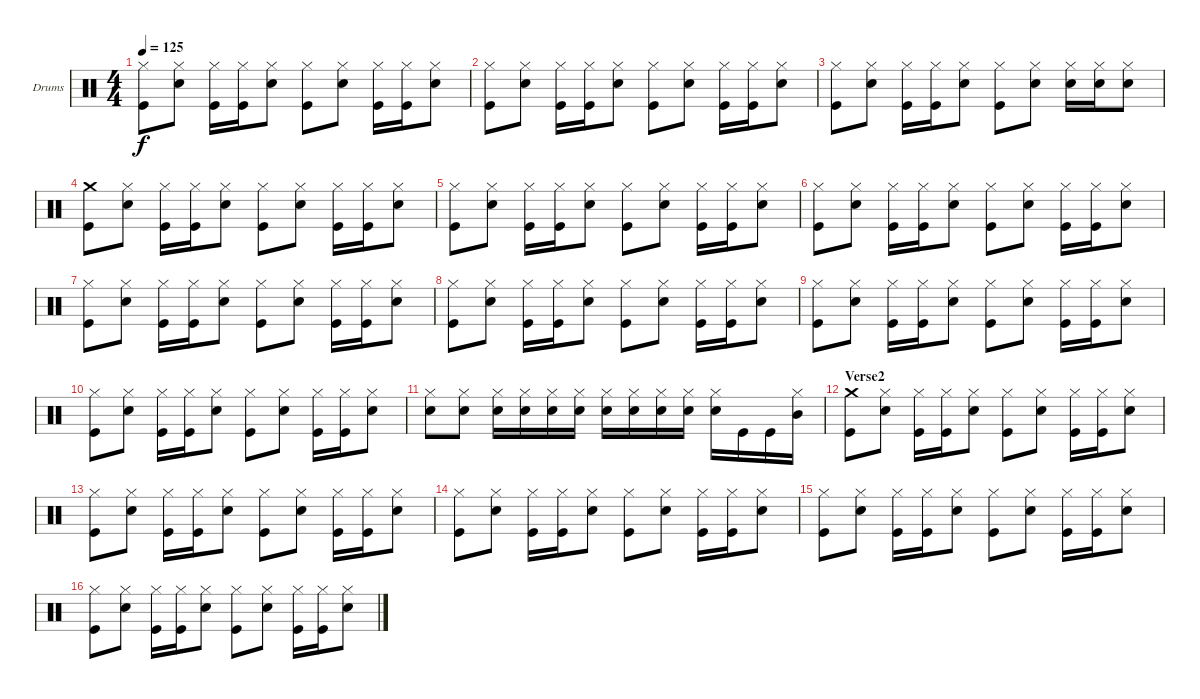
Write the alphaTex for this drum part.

\defaultSystemsLayout 4
\bracketExtendMode groupsimilarinstruments
\firstSystemTrackNameOrientation horizontal
\otherSystemsTrackNameOrientation horizontal
\track ("Drum" "Drums") {instrument percussion}
\staff {score}
\articulation defaults
\ts (4 4)
\tempo 125
\clef neutral
\ks c
("Hi-Hat (closed)" "Kick (hit)").8{dy f} ("Hi-Hat (closed)" "Snare (hit) 2").8 ("Hi-Hat (closed)" "Kick (hit)").16 ("Hi-Hat (closed)" "Kick (hit)").16 ("Hi-Hat (closed)" "Snare (hit) 2").8 ("Hi-Hat (closed)" "Kick (hit)").8 ("Hi-Hat (closed)" "Snare (hit) 2").8 ("Hi-Hat (closed)" "Kick (hit)").16 ("Hi-Hat (closed)" "Kick (hit)").16 ("Hi-Hat (closed)" "Snare (hit) 2").8 |
("Hi-Hat (closed)" "Kick (hit)").8 ("Hi-Hat (closed)" "Snare (hit) 2").8 ("Hi-Hat (closed)" "Kick (hit)").16 ("Hi-Hat (closed)" "Kick (hit)").16 ("Hi-Hat (closed)" "Snare (hit) 2").8 ("Hi-Hat (closed)" "Kick (hit)").8 ("Hi-Hat (closed)" "Snare (hit) 2").8 ("Hi-Hat (closed)" "Kick (hit)").16 ("Hi-Hat (closed)" "Kick (hit)").16 ("Hi-Hat (closed)" "Snare (hit) 2").8 |
("Hi-Hat (closed)" "Kick (hit)").8 ("Hi-Hat (closed)" "Snare (hit) 2").8 ("Hi-Hat (closed)" "Kick (hit)").16 ("Hi-Hat (closed)" "Kick (hit)").16 ("Hi-Hat (closed)" "Snare (hit) 2").8 ("Hi-Hat (closed)" "Kick (hit)").8 ("Hi-Hat (closed)" "Snare (hit) 2").8 ("Hi-Hat (closed)" "Snare (hit) 2").16 ("Hi-Hat (closed)" "Snare (hit) 2").16 ("Hi-Hat (closed)" "Snare (hit) 2").8 |
("Crash medium (hit)" "Kick (hit)").8 ("Hi-Hat (closed)" "Snare (hit) 2").8 ("Hi-Hat (closed)" "Kick (hit)").16 ("Hi-Hat (closed)" "Kick (hit)").16 ("Hi-Hat (closed)" "Snare (hit) 2").8 ("Hi-Hat (closed)" "Kick (hit)").8 ("Hi-Hat (closed)" "Snare (hit) 2").8 ("Hi-Hat (closed)" "Kick (hit)").16 ("Hi-Hat (closed)" "Kick (hit)").16 ("Hi-Hat (closed)" "Snare (hit) 2").8 |
("Hi-Hat (closed)" "Kick (hit)").8 ("Hi-Hat (closed)" "Snare (hit) 2").8 ("Hi-Hat (closed)" "Kick (hit)").16 ("Hi-Hat (closed)" "Kick (hit)").16 ("Hi-Hat (closed)" "Snare (hit) 2").8 ("Hi-Hat (closed)" "Kick (hit)").8 ("Hi-Hat (closed)" "Snare (hit) 2").8 ("Hi-Hat (closed)" "Kick (hit)").16 ("Hi-Hat (closed)" "Kick (hit)").16 ("Hi-Hat (closed)" "Snare (hit) 2").8 |
("Hi-Hat (closed)" "Kick (hit)").8 ("Hi-Hat (closed)" "Snare (hit) 2").8 ("Hi-Hat (closed)" "Kick (hit)").16 ("Hi-Hat (closed)" "Kick (hit)").16 ("Hi-Hat (closed)" "Snare (hit) 2").8 ("Hi-Hat (closed)" "Kick (hit)").8 ("Hi-Hat (closed)" "Snare (hit) 2").8 ("Hi-Hat (closed)" "Kick (hit)").16 ("Hi-Hat (closed)" "Kick (hit)").16 ("Hi-Hat (closed)" "Snare (hit) 2").8 |
("Hi-Hat (closed)" "Kick (hit)").8 ("Hi-Hat (closed)" "Snare (hit) 2").8 ("Hi-Hat (closed)" "Kick (hit)").16 ("Hi-Hat (closed)" "Kick (hit)").16 ("Hi-Hat (closed)" "Snare (hit) 2").8 ("Hi-Hat (closed)" "Kick (hit)").8 ("Hi-Hat (closed)" "Snare (hit) 2").8 ("Hi-Hat (closed)" "Kick (hit)").16 ("Hi-Hat (closed)" "Kick (hit)").16 ("Hi-Hat (closed)" "Snare (hit) 2").8 |
("Hi-Hat (closed)" "Kick (hit)").8 ("Hi-Hat (closed)" "Snare (hit) 2").8 ("Hi-Hat (closed)" "Kick (hit)").16 ("Hi-Hat (closed)" "Kick (hit)").16 ("Hi-Hat (closed)" "Snare (hit) 2").8 ("Hi-Hat (closed)" "Kick (hit)").8 ("Hi-Hat (closed)" "Snare (hit) 2").8 ("Hi-Hat (closed)" "Kick (hit)").16 ("Hi-Hat (closed)" "Kick (hit)").16 ("Hi-Hat (closed)" "Snare (hit) 2").8 |
("Hi-Hat (closed)" "Kick (hit)").8 ("Hi-Hat (closed)" "Snare (hit) 2").8 ("Hi-Hat (closed)" "Kick (hit)").16 ("Hi-Hat (closed)" "Kick (hit)").16 ("Hi-Hat (closed)" "Snare (hit) 2").8 ("Hi-Hat (closed)" "Kick (hit)").8 ("Hi-Hat (closed)" "Snare (hit) 2").8 ("Hi-Hat (closed)" "Kick (hit)").16 ("Hi-Hat (closed)" "Kick (hit)").16 ("Hi-Hat (closed)" "Snare (hit) 2").8 |
("Hi-Hat (closed)" "Kick (hit)").8 ("Hi-Hat (closed)" "Snare (hit) 2").8 ("Hi-Hat (closed)" "Kick (hit)").16 ("Hi-Hat (closed)" "Kick (hit)").16 ("Hi-Hat (closed)" "Snare (hit) 2").8 ("Hi-Hat (closed)" "Kick (hit)").8 ("Hi-Hat (closed)" "Snare (hit) 2").8 ("Hi-Hat (closed)" "Kick (hit)").16 ("Hi-Hat (closed)" "Kick (hit)").16 ("Hi-Hat (closed)" "Snare (hit) 2").8 |
("Hi-Hat (closed)" "Snare (hit) 2").8 ("Hi-Hat (closed)" "Snare (hit) 2").8 ("Hi-Hat (closed)" "Snare (hit) 2").16 ("Hi-Hat (closed)" "Snare (hit) 2").16 ("Hi-Hat (closed)" "Snare (hit) 2").16 ("Hi-Hat (closed)" "Snare (hit) 2").16 ("Hi-Hat (closed)" "Snare (hit) 2").16 ("Hi-Hat (closed)" "Snare (hit) 2").16 ("Hi-Hat (closed)" "Snare (hit) 2").16 ("Hi-Hat (closed)" "Snare (hit) 2").16 ("Hi-Hat (closed)" "Snare (hit) 2").16 "Kick (hit)".16 "Kick (hit)".16 ("Hi-Hat (closed)" "Mid Tom (hit)").16 |
\section ("" "Verse2")
("Crash medium (hit)" "Kick (hit)").8 ("Hi-Hat (closed)" "Snare (hit) 2").8 ("Hi-Hat (closed)" "Kick (hit)").16 ("Hi-Hat (closed)" "Kick (hit)").16 ("Hi-Hat (closed)" "Snare (hit) 2").8 ("Hi-Hat (closed)" "Kick (hit)").8 ("Hi-Hat (closed)" "Snare (hit) 2").8 ("Hi-Hat (closed)" "Kick (hit)").16 ("Hi-Hat (closed)" "Kick (hit)").16 ("Hi-Hat (closed)" "Snare (hit) 2").8 |
("Hi-Hat (closed)" "Kick (hit)").8 ("Hi-Hat (closed)" "Snare (hit) 2").8 ("Hi-Hat (closed)" "Kick (hit)").16 ("Hi-Hat (closed)" "Kick (hit)").16 ("Hi-Hat (closed)" "Snare (hit) 2").8 ("Hi-Hat (closed)" "Kick (hit)").8 ("Hi-Hat (closed)" "Snare (hit) 2").8 ("Hi-Hat (closed)" "Kick (hit)").16 ("Hi-Hat (closed)" "Kick (hit)").16 ("Hi-Hat (closed)" "Snare (hit) 2").8 |
("Hi-Hat (closed)" "Kick (hit)").8 ("Hi-Hat (closed)" "Snare (hit) 2").8 ("Hi-Hat (closed)" "Kick (hit)").16 ("Hi-Hat (closed)" "Kick (hit)").16 ("Hi-Hat (closed)" "Snare (hit) 2").8 ("Hi-Hat (closed)" "Kick (hit)").8 ("Hi-Hat (closed)" "Snare (hit) 2").8 ("Hi-Hat (closed)" "Kick (hit)").16 ("Hi-Hat (closed)" "Kick (hit)").16 ("Hi-Hat (closed)" "Snare (hit) 2").8 |
("Hi-Hat (closed)" "Kick (hit)").8 ("Hi-Hat (closed)" "Snare (hit) 2").8 ("Hi-Hat (closed)" "Kick (hit)").16 ("Hi-Hat (closed)" "Kick (hit)").16 ("Hi-Hat (closed)" "Snare (hit) 2").8 ("Hi-Hat (closed)" "Kick (hit)").8 ("Hi-Hat (closed)" "Snare (hit) 2").8 ("Hi-Hat (closed)" "Kick (hit)").16 ("Hi-Hat (closed)" "Kick (hit)").16 ("Hi-Hat (closed)" "Snare (hit) 2").8 |
("Hi-Hat (closed)" "Kick (hit)").8 ("Hi-Hat (closed)" "Snare (hit) 2").8 ("Hi-Hat (closed)" "Kick (hit)").16 ("Hi-Hat (closed)" "Kick (hit)").16 ("Hi-Hat (closed)" "Snare (hit) 2").8 ("Hi-Hat (closed)" "Kick (hit)").8 ("Hi-Hat (closed)" "Snare (hit) 2").8 ("Hi-Hat (closed)" "Kick (hit)").16 ("Hi-Hat (closed)" "Kick (hit)").16 ("Hi-Hat (closed)" "Snare (hit) 2").8
